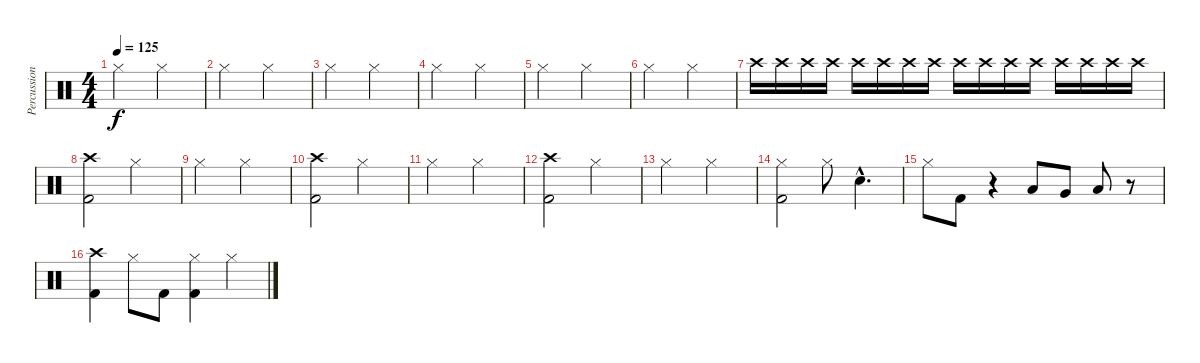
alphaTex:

\track ("Percussion" "Percussion") {instrument percussion}
\staff {score}
\articulation defaults
\ts (4 4)
\tempo 125
\clef neutral
\ks c "Hi-Hat (closed)".2{dy f} "Hi-Hat (closed)".2
|
"Hi-Hat (closed)".2 "Hi-Hat (closed)".2 |
"Hi-Hat (closed)".2 "Hi-Hat (closed)".2 |
"Hi-Hat (closed)".2 "Hi-Hat (closed)".2 |
"Hi-Hat (closed)".2 "Hi-Hat (closed)".2 |
"Hi-Hat (closed)".2 "Hi-Hat (closed)".2 |
"Crash high (hit)".16 "Crash high (hit)".16 "Crash high (hit)".16 "Crash high (hit)".16 "Crash high (hit)".16 "Crash high (hit)".16 "Crash high (hit)".16 "Crash high (hit)".16 "Crash high (hit)".16 "Crash high (hit)".16 "Crash high (hit)".16 "Crash high (hit)".16 "Crash high (hit)".16 "Crash high (hit)".16 "Crash high (hit)".16 "Crash high (hit)".16 |
("Crash high (hit)" "Kick (hit) 2").2 "Hi-Hat (closed)".2 |
"Hi-Hat (closed)".2 "Hi-Hat (closed)".2 |
("Crash high (hit)" "Kick (hit) 2").2 "Hi-Hat (closed)".2 |
"Hi-Hat (closed)".2 "Hi-Hat (closed)".2 |
("Crash high (hit)" "Kick (hit) 2").2 "Hi-Hat (closed)".2 |
"Hi-Hat (closed)".2 "Hi-Hat (closed)".2 |
("Hi-Hat (closed)" "Kick (hit) 2").2 "Hi-Hat (closed)".8 "Snare (hit) 2"{hac}.4{d} |
"Hi-Hat (closed)".8 "Kick (hit) 2".8 r.4 "Low Tom (hit)".8 "Very Low Tom (hit)".8 "Low Floor Tom (hit)".8 r.8 |
("Crash high (hit)" "Kick (hit) 2").4 "Hi-Hat (closed)".8 "Kick (hit) 2".8 ("Hi-Hat (closed)" "Kick (hit) 2").4 "Hi-Hat (closed)".4
